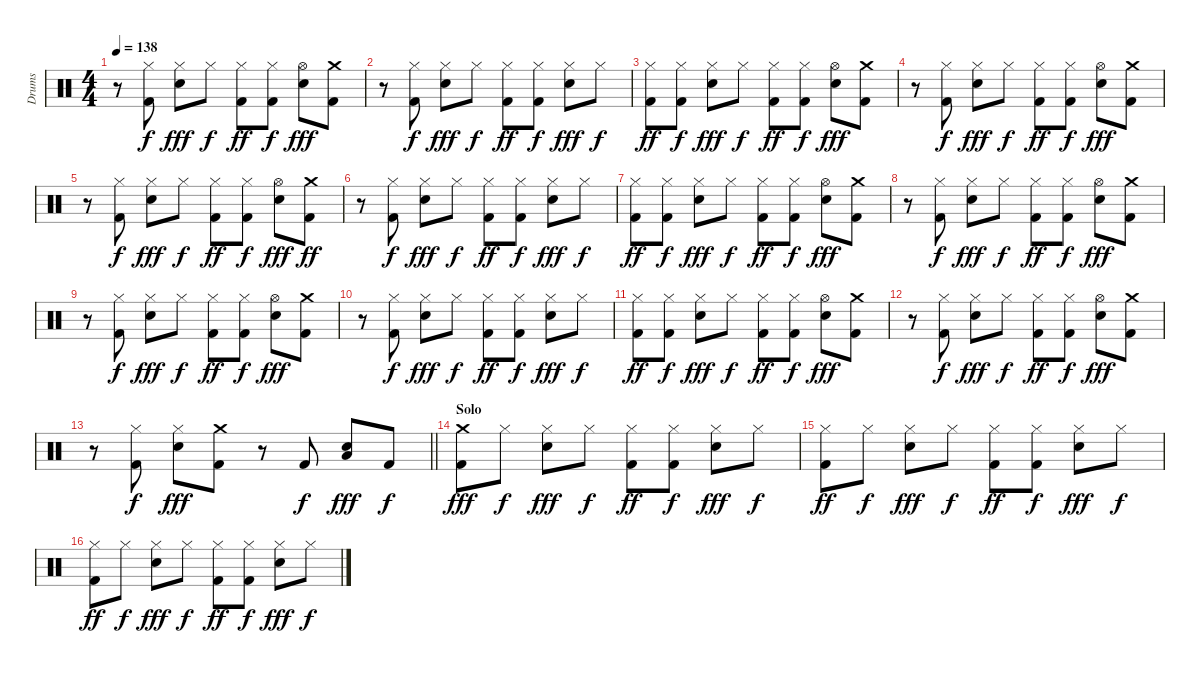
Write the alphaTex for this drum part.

\track ("Drums" "Drums") {instrument percussion}
\staff {score}
\articulation defaults
\ts (4 4)
\tempo 138
\clef neutral
\ks c
r.8{dy fff} ("Kick (hit) 2" "Hi-Hat (closed)").8{dy f} ("Snare (hit) 2" "Hi-Hat (closed)").8{dy fff} "Hi-Hat (closed)".8{dy f} ("Kick (hit) 2" "Hi-Hat (closed)").8{dy ff} ("Kick (hit) 2" "Hi-Hat (closed)").8{dy f} ("Snare (hit) 2" "Hi-Hat (open)").8{dy fff} ("Kick (hit) 2" "Crash medium (hit)").8 |
r.8 ("Kick (hit) 2" "Hi-Hat (closed)").8{dy f} ("Snare (hit) 2" "Hi-Hat (closed)").8{dy fff} "Hi-Hat (closed)".8{dy f} ("Kick (hit) 2" "Hi-Hat (closed)").8{dy ff} ("Kick (hit) 2" "Hi-Hat (closed)").8{dy f} ("Snare (hit) 2" "Hi-Hat (closed)").8{dy fff} "Hi-Hat (closed)".8{dy f} |
("Kick (hit) 2" "Hi-Hat (closed)").8{dy ff} ("Kick (hit) 2" "Hi-Hat (closed)").8{dy f} ("Snare (hit) 2" "Hi-Hat (closed)").8{dy fff} "Hi-Hat (closed)".8{dy f} ("Kick (hit) 2" "Hi-Hat (closed)").8{dy ff} ("Kick (hit) 2" "Hi-Hat (closed)").8{dy f} ("Snare (hit) 2" "Hi-Hat (open)").8{dy fff} ("Kick (hit) 2" "Crash medium (hit)").8 |
r.8 ("Kick (hit) 2" "Hi-Hat (closed)").8{dy f} ("Snare (hit) 2" "Hi-Hat (closed)").8{dy fff} "Hi-Hat (closed)".8{dy f} ("Kick (hit) 2" "Hi-Hat (closed)").8{dy ff} ("Kick (hit) 2" "Hi-Hat (closed)").8{dy f} ("Snare (hit) 2" "Hi-Hat (open)").8{dy fff} ("Kick (hit) 2" "Crash medium (hit)").8 |
r.8 ("Kick (hit) 2" "Hi-Hat (closed)").8{dy f} ("Snare (hit) 2" "Hi-Hat (closed)").8{dy fff} "Hi-Hat (closed)".8{dy f} ("Kick (hit) 2" "Hi-Hat (closed)").8{dy ff} ("Kick (hit) 2" "Hi-Hat (closed)").8{dy f} ("Snare (hit) 2" "Hi-Hat (open)").8{dy fff} ("Crash medium (hit)" "Kick (hit) 2").8{dy ff} |
r.8 ("Kick (hit) 2" "Hi-Hat (closed)").8{dy f} ("Snare (hit) 2" "Hi-Hat (closed)").8{dy fff} "Hi-Hat (closed)".8{dy f} ("Kick (hit) 2" "Hi-Hat (closed)").8{dy ff} ("Kick (hit) 2" "Hi-Hat (closed)").8{dy f} ("Snare (hit) 2" "Hi-Hat (closed)").8{dy fff} "Hi-Hat (closed)".8{dy f} |
("Kick (hit) 2" "Hi-Hat (closed)").8{dy ff} ("Kick (hit) 2" "Hi-Hat (closed)").8{dy f} ("Snare (hit) 2" "Hi-Hat (closed)").8{dy fff} "Hi-Hat (closed)".8{dy f} ("Kick (hit) 2" "Hi-Hat (closed)").8{dy ff} ("Kick (hit) 2" "Hi-Hat (closed)").8{dy f} ("Snare (hit) 2" "Hi-Hat (open)").8{dy fff} ("Kick (hit) 2" "Crash medium (hit)").8 |
r.8 ("Kick (hit) 2" "Hi-Hat (closed)").8{dy f} ("Snare (hit) 2" "Hi-Hat (closed)").8{dy fff} "Hi-Hat (closed)".8{dy f} ("Kick (hit) 2" "Hi-Hat (closed)").8{dy ff} ("Kick (hit) 2" "Hi-Hat (closed)").8{dy f} ("Snare (hit) 2" "Hi-Hat (open)").8{dy fff} ("Kick (hit) 2" "Crash medium (hit)").8 |
r.8 ("Kick (hit) 2" "Hi-Hat (closed)").8{dy f} ("Snare (hit) 2" "Hi-Hat (closed)").8{dy fff} "Hi-Hat (closed)".8{dy f} ("Kick (hit) 2" "Hi-Hat (closed)").8{dy ff} ("Kick (hit) 2" "Hi-Hat (closed)").8{dy f} ("Snare (hit) 2" "Hi-Hat (open)").8{dy fff} ("Kick (hit) 2" "Crash medium (hit)").8 |
r.8 ("Kick (hit) 2" "Hi-Hat (closed)").8{dy f} ("Snare (hit) 2" "Hi-Hat (closed)").8{dy fff} "Hi-Hat (closed)".8{dy f} ("Kick (hit) 2" "Hi-Hat (closed)").8{dy ff} ("Kick (hit) 2" "Hi-Hat (closed)").8{dy f} ("Snare (hit) 2" "Hi-Hat (closed)").8{dy fff} "Hi-Hat (closed)".8{dy f} |
("Kick (hit) 2" "Hi-Hat (closed)").8{dy ff} ("Kick (hit) 2" "Hi-Hat (closed)").8{dy f} ("Snare (hit) 2" "Hi-Hat (closed)").8{dy fff} "Hi-Hat (closed)".8{dy f} ("Kick (hit) 2" "Hi-Hat (closed)").8{dy ff} ("Kick (hit) 2" "Hi-Hat (closed)").8{dy f} ("Snare (hit) 2" "Hi-Hat (open)").8{dy fff} ("Kick (hit) 2" "Crash medium (hit)").8 |
r.8 ("Kick (hit) 2" "Hi-Hat (closed)").8{dy f} ("Snare (hit) 2" "Hi-Hat (closed)").8{dy fff} "Hi-Hat (closed)".8{dy f} ("Kick (hit) 2" "Hi-Hat (closed)").8{dy ff} ("Kick (hit) 2" "Hi-Hat (closed)").8{dy f} ("Snare (hit) 2" "Hi-Hat (open)").8{dy fff} ("Kick (hit) 2" "Crash medium (hit)").8 |
\barLineRight lightlight
r.8 ("Kick (hit) 2" "Hi-Hat (closed)").8{dy f} ("Snare (hit) 2" "Hi-Hat (closed)").8{dy fff} ("Kick (hit) 2" "Crash medium (hit)").8 r.8 "Kick (hit) 2".8{dy f} ("Snare (hit) 2" "Low Floor Tom (hit)").8{dy fff} "Kick (hit) 2".8{dy f} |
\section ("" "Solo")
("Kick (hit) 2" "Crash medium (hit)").8{dy fff} "Hi-Hat (closed)".8{dy f} ("Snare (hit) 2" "Hi-Hat (closed)").8{dy fff} "Hi-Hat (closed)".8{dy f} ("Kick (hit) 2" "Hi-Hat (closed)").8{dy ff} ("Kick (hit) 2" "Hi-Hat (closed)").8{dy f} ("Snare (hit) 2" "Hi-Hat (closed)").8{dy fff} "Hi-Hat (closed)".8{dy f} |
("Kick (hit) 2" "Hi-Hat (closed)").8{dy ff} "Hi-Hat (closed)".8{dy f} ("Snare (hit) 2" "Hi-Hat (closed)").8{dy fff} "Hi-Hat (closed)".8{dy f} ("Kick (hit) 2" "Hi-Hat (closed)").8{dy ff} ("Kick (hit) 2" "Hi-Hat (closed)").8{dy f} ("Snare (hit) 2" "Hi-Hat (closed)").8{dy fff} "Hi-Hat (closed)".8{dy f} |
("Kick (hit) 2" "Hi-Hat (closed)").8{dy ff} "Hi-Hat (closed)".8{dy f} ("Snare (hit) 2" "Hi-Hat (closed)").8{dy fff} "Hi-Hat (closed)".8{dy f} ("Kick (hit) 2" "Hi-Hat (closed)").8{dy ff} ("Kick (hit) 2" "Hi-Hat (closed)").8{dy f} ("Snare (hit) 2" "Hi-Hat (closed)").8{dy fff} "Hi-Hat (closed)".8{dy f}
